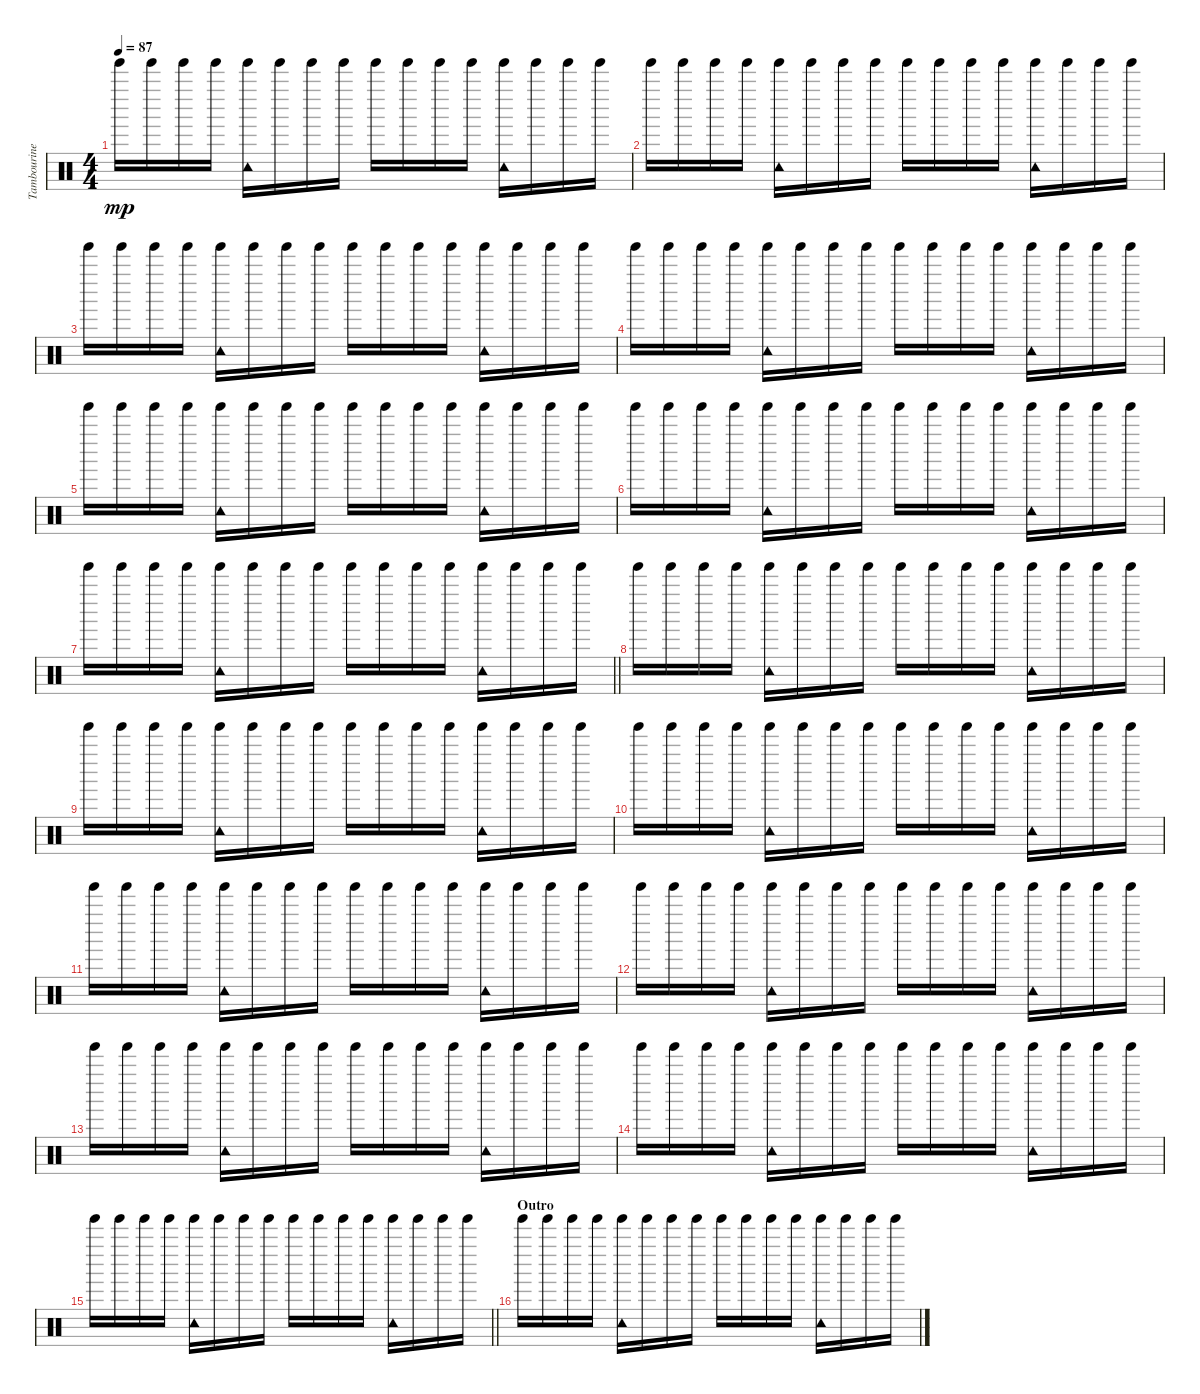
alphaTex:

\track ("Tambourine" "Tambourine") {instrument percussion}
\staff {score}
\articulation defaults
\ts (4 4)
\tempo 87
\clef neutral
\ks c "Tinkle Bell (hit)".16{dy mp} "Tinkle Bell (hit)".16 "Tinkle Bell (hit)".16 "Tinkle Bell (hit)".16
("Tinkle Bell (hit)" "Tambourine (hit)").16 "Tinkle Bell (hit)".16 "Tinkle Bell (hit)".16 "Tinkle Bell (hit)".16 "Tinkle Bell (hit)".16 "Tinkle Bell (hit)".16 "Tinkle Bell (hit)".16 "Tinkle Bell (hit)".16 ("Tinkle Bell (hit)" "Tambourine (hit)").16 "Tinkle Bell (hit)".16 "Tinkle Bell (hit)".16 "Tinkle Bell (hit)".16 |
"Tinkle Bell (hit)".16 "Tinkle Bell (hit)".16 "Tinkle Bell (hit)".16 "Tinkle Bell (hit)".16 ("Tinkle Bell (hit)" "Tambourine (hit)").16 "Tinkle Bell (hit)".16 "Tinkle Bell (hit)".16 "Tinkle Bell (hit)".16 "Tinkle Bell (hit)".16 "Tinkle Bell (hit)".16 "Tinkle Bell (hit)".16 "Tinkle Bell (hit)".16 ("Tinkle Bell (hit)" "Tambourine (hit)").16 "Tinkle Bell (hit)".16 "Tinkle Bell (hit)".16 "Tinkle Bell (hit)".16 |
"Tinkle Bell (hit)".16 "Tinkle Bell (hit)".16 "Tinkle Bell (hit)".16 "Tinkle Bell (hit)".16 ("Tinkle Bell (hit)" "Tambourine (hit)").16 "Tinkle Bell (hit)".16 "Tinkle Bell (hit)".16 "Tinkle Bell (hit)".16 "Tinkle Bell (hit)".16 "Tinkle Bell (hit)".16 "Tinkle Bell (hit)".16 "Tinkle Bell (hit)".16 ("Tinkle Bell (hit)" "Tambourine (hit)").16 "Tinkle Bell (hit)".16 "Tinkle Bell (hit)".16 "Tinkle Bell (hit)".16 |
"Tinkle Bell (hit)".16 "Tinkle Bell (hit)".16 "Tinkle Bell (hit)".16 "Tinkle Bell (hit)".16 ("Tinkle Bell (hit)" "Tambourine (hit)").16 "Tinkle Bell (hit)".16 "Tinkle Bell (hit)".16 "Tinkle Bell (hit)".16 "Tinkle Bell (hit)".16 "Tinkle Bell (hit)".16 "Tinkle Bell (hit)".16 "Tinkle Bell (hit)".16 ("Tinkle Bell (hit)" "Tambourine (hit)").16 "Tinkle Bell (hit)".16 "Tinkle Bell (hit)".16 "Tinkle Bell (hit)".16 |
"Tinkle Bell (hit)".16 "Tinkle Bell (hit)".16 "Tinkle Bell (hit)".16 "Tinkle Bell (hit)".16 ("Tinkle Bell (hit)" "Tambourine (hit)").16 "Tinkle Bell (hit)".16 "Tinkle Bell (hit)".16 "Tinkle Bell (hit)".16 "Tinkle Bell (hit)".16 "Tinkle Bell (hit)".16 "Tinkle Bell (hit)".16 "Tinkle Bell (hit)".16 ("Tinkle Bell (hit)" "Tambourine (hit)").16 "Tinkle Bell (hit)".16 "Tinkle Bell (hit)".16 "Tinkle Bell (hit)".16 |
"Tinkle Bell (hit)".16 "Tinkle Bell (hit)".16 "Tinkle Bell (hit)".16 "Tinkle Bell (hit)".16 ("Tinkle Bell (hit)" "Tambourine (hit)").16 "Tinkle Bell (hit)".16 "Tinkle Bell (hit)".16 "Tinkle Bell (hit)".16 "Tinkle Bell (hit)".16 "Tinkle Bell (hit)".16 "Tinkle Bell (hit)".16 "Tinkle Bell (hit)".16 ("Tinkle Bell (hit)" "Tambourine (hit)").16 "Tinkle Bell (hit)".16 "Tinkle Bell (hit)".16 "Tinkle Bell (hit)".16 |
\barLineRight lightlight "Tinkle Bell (hit)".16 "Tinkle Bell (hit)".16 "Tinkle Bell (hit)".16 "Tinkle Bell (hit)".16
("Tinkle Bell (hit)" "Tambourine (hit)").16 "Tinkle Bell (hit)".16 "Tinkle Bell (hit)".16 "Tinkle Bell (hit)".16 "Tinkle Bell (hit)".16 "Tinkle Bell (hit)".16 "Tinkle Bell (hit)".16 "Tinkle Bell (hit)".16 ("Tinkle Bell (hit)" "Tambourine (hit)").16 "Tinkle Bell (hit)".16 "Tinkle Bell (hit)".16 "Tinkle Bell (hit)".16 |
"Tinkle Bell (hit)".16 "Tinkle Bell (hit)".16 "Tinkle Bell (hit)".16 "Tinkle Bell (hit)".16 ("Tinkle Bell (hit)" "Tambourine (hit)").16 "Tinkle Bell (hit)".16 "Tinkle Bell (hit)".16 "Tinkle Bell (hit)".16 "Tinkle Bell (hit)".16 "Tinkle Bell (hit)".16 "Tinkle Bell (hit)".16 "Tinkle Bell (hit)".16 ("Tinkle Bell (hit)" "Tambourine (hit)").16 "Tinkle Bell (hit)".16 "Tinkle Bell (hit)".16 "Tinkle Bell (hit)".16 |
"Tinkle Bell (hit)".16 "Tinkle Bell (hit)".16 "Tinkle Bell (hit)".16 "Tinkle Bell (hit)".16 ("Tinkle Bell (hit)" "Tambourine (hit)").16 "Tinkle Bell (hit)".16 "Tinkle Bell (hit)".16 "Tinkle Bell (hit)".16 "Tinkle Bell (hit)".16 "Tinkle Bell (hit)".16 "Tinkle Bell (hit)".16 "Tinkle Bell (hit)".16 ("Tinkle Bell (hit)" "Tambourine (hit)").16 "Tinkle Bell (hit)".16 "Tinkle Bell (hit)".16 "Tinkle Bell (hit)".16 |
"Tinkle Bell (hit)".16 "Tinkle Bell (hit)".16 "Tinkle Bell (hit)".16 "Tinkle Bell (hit)".16 ("Tinkle Bell (hit)" "Tambourine (hit)").16 "Tinkle Bell (hit)".16 "Tinkle Bell (hit)".16 "Tinkle Bell (hit)".16 "Tinkle Bell (hit)".16 "Tinkle Bell (hit)".16 "Tinkle Bell (hit)".16 "Tinkle Bell (hit)".16 ("Tinkle Bell (hit)" "Tambourine (hit)").16 "Tinkle Bell (hit)".16 "Tinkle Bell (hit)".16 "Tinkle Bell (hit)".16 |
"Tinkle Bell (hit)".16 "Tinkle Bell (hit)".16 "Tinkle Bell (hit)".16 "Tinkle Bell (hit)".16 ("Tinkle Bell (hit)" "Tambourine (hit)").16 "Tinkle Bell (hit)".16 "Tinkle Bell (hit)".16 "Tinkle Bell (hit)".16 "Tinkle Bell (hit)".16 "Tinkle Bell (hit)".16 "Tinkle Bell (hit)".16 "Tinkle Bell (hit)".16 ("Tinkle Bell (hit)" "Tambourine (hit)").16 "Tinkle Bell (hit)".16 "Tinkle Bell (hit)".16 "Tinkle Bell (hit)".16 |
"Tinkle Bell (hit)".16 "Tinkle Bell (hit)".16 "Tinkle Bell (hit)".16 "Tinkle Bell (hit)".16 ("Tinkle Bell (hit)" "Tambourine (hit)").16 "Tinkle Bell (hit)".16 "Tinkle Bell (hit)".16 "Tinkle Bell (hit)".16 "Tinkle Bell (hit)".16 "Tinkle Bell (hit)".16 "Tinkle Bell (hit)".16 "Tinkle Bell (hit)".16 ("Tinkle Bell (hit)" "Tambourine (hit)").16 "Tinkle Bell (hit)".16 "Tinkle Bell (hit)".16 "Tinkle Bell (hit)".16 |
"Tinkle Bell (hit)".16 "Tinkle Bell (hit)".16 "Tinkle Bell (hit)".16 "Tinkle Bell (hit)".16 ("Tinkle Bell (hit)" "Tambourine (hit)").16 "Tinkle Bell (hit)".16 "Tinkle Bell (hit)".16 "Tinkle Bell (hit)".16 "Tinkle Bell (hit)".16 "Tinkle Bell (hit)".16 "Tinkle Bell (hit)".16 "Tinkle Bell (hit)".16 ("Tinkle Bell (hit)" "Tambourine (hit)").16 "Tinkle Bell (hit)".16 "Tinkle Bell (hit)".16 "Tinkle Bell (hit)".16 |
"Tinkle Bell (hit)".16 "Tinkle Bell (hit)".16 "Tinkle Bell (hit)".16 "Tinkle Bell (hit)".16 ("Tinkle Bell (hit)" "Tambourine (hit)").16 "Tinkle Bell (hit)".16 "Tinkle Bell (hit)".16 "Tinkle Bell (hit)".16 "Tinkle Bell (hit)".16 "Tinkle Bell (hit)".16 "Tinkle Bell (hit)".16 "Tinkle Bell (hit)".16 ("Tinkle Bell (hit)" "Tambourine (hit)").16 "Tinkle Bell (hit)".16 "Tinkle Bell (hit)".16 "Tinkle Bell (hit)".16 |
\barLineRight lightlight "Tinkle Bell (hit)".16 "Tinkle Bell (hit)".16 "Tinkle Bell (hit)".16 "Tinkle Bell (hit)".16
("Tinkle Bell (hit)" "Tambourine (hit)").16 "Tinkle Bell (hit)".16 "Tinkle Bell (hit)".16 "Tinkle Bell (hit)".16 "Tinkle Bell (hit)".16 "Tinkle Bell (hit)".16 "Tinkle Bell (hit)".16 "Tinkle Bell (hit)".16 ("Tinkle Bell (hit)" "Tambourine (hit)").16 "Tinkle Bell (hit)".16 "Tinkle Bell (hit)".16 "Tinkle Bell (hit)".16 |
\section ("" "Outro")
"Tinkle Bell (hit)".16 "Tinkle Bell (hit)".16 "Tinkle Bell (hit)".16 "Tinkle Bell (hit)".16 ("Tinkle Bell (hit)" "Tambourine (hit)").16 "Tinkle Bell (hit)".16 "Tinkle Bell (hit)".16 "Tinkle Bell (hit)".16 "Tinkle Bell (hit)".16 "Tinkle Bell (hit)".16 "Tinkle Bell (hit)".16 "Tinkle Bell (hit)".16 ("Tinkle Bell (hit)" "Tambourine (hit)").16 "Tinkle Bell (hit)".16 "Tinkle Bell (hit)".16 "Tinkle Bell (hit)".16
